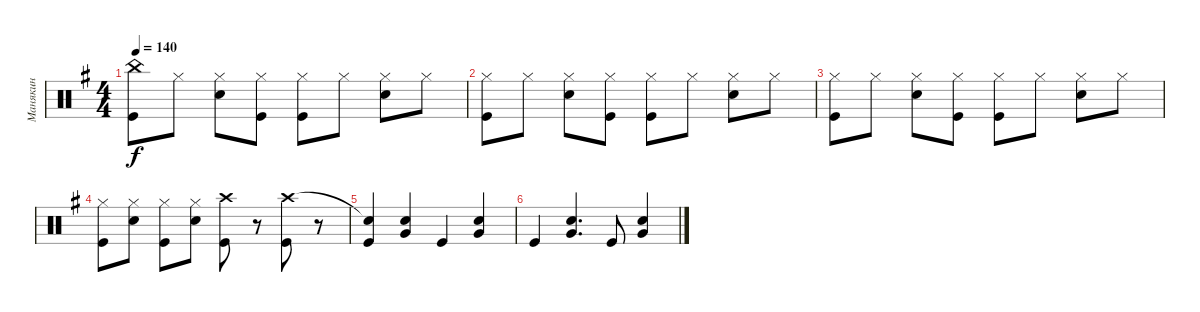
\track ("Манякин" "Манякин") {instrument percussion}
\staff {score}
\articulation defaults
\ts (4 4)
\tempo 140
\clef neutral
\ks g
("China (hit)" "Kick (hit)").8{dy f} "Hi-Hat (closed)".8 ("Hi-Hat (closed)" "Snare (hit) 2").8 ("Hi-Hat (closed)" "Kick (hit)").8 ("Hi-Hat (closed)" "Kick (hit)").8 "Hi-Hat (closed)".8 ("Hi-Hat (closed)" "Snare (hit) 2").8 "Hi-Hat (closed)".8 |
("Hi-Hat (closed)" "Kick (hit)").8 "Hi-Hat (closed)".8 ("Hi-Hat (closed)" "Snare (hit) 2").8 ("Hi-Hat (closed)" "Kick (hit)").8 ("Hi-Hat (closed)" "Kick (hit)").8 "Hi-Hat (closed)".8 ("Hi-Hat (closed)" "Snare (hit) 2").8 "Hi-Hat (closed)".8 |
("Hi-Hat (closed)" "Kick (hit)").8 "Hi-Hat (closed)".8 ("Hi-Hat (closed)" "Snare (hit) 2").8 ("Hi-Hat (closed)" "Kick (hit)").8 ("Hi-Hat (closed)" "Kick (hit)").8 "Hi-Hat (closed)".8 ("Hi-Hat (closed)" "Snare (hit) 2").8 "Hi-Hat (closed)".8 |
("Hi-Hat (closed)" "Kick (hit)").8 ("Hi-Hat (closed)" "Snare (hit) 2").8 ("Hi-Hat (closed)" "Kick (hit)").8 ("Hi-Hat (closed)" "Snare (hit) 2").8 ("Crash high (hit)" "Kick (hit)").8 r.8 ("Crash high (hit)" "Kick (hit)").8 r.8 |
("Snare (hit)"{t} "Kick (hit)").4 ("Snare (hit) 2" "Very Low Tom (hit)").4 "Kick (hit)".4 ("Snare (hit) 2" "Very Low Tom (hit)").4 |
"Kick (hit)".4 ("Snare (hit) 2" "Very Low Tom (hit)").4{d} "Kick (hit)".8 ("Snare (hit) 2" "Very Low Tom (hit)").4
